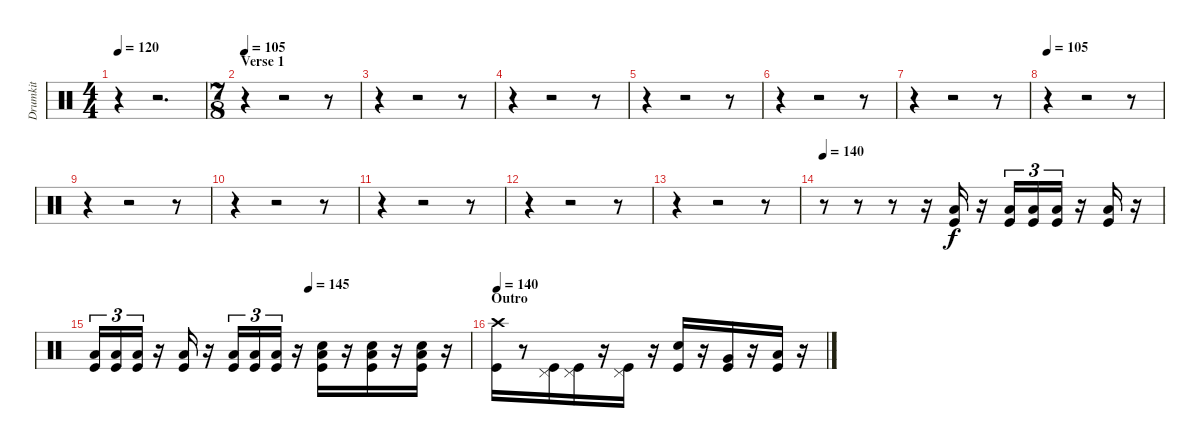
\track ("Drumkit" "Drumkit") {instrument percussion}
\staff {score}
\articulation defaults
\ts (4 4)
\tempo 120
\clef neutral
\ks c
r.4{dy f} r.2{d} |
\ts (7 8)
\section ("" "Verse 1")
\tempo 105
r.4 r.2 r.8 |
r.4 r.2 r.8 |
r.4 r.2 r.8 |
r.4 r.2 r.8 |
r.4 r.2 r.8 |
r.4 r.2 r.8 |
\tempo 105
r.4 r.2 r.8 |
r.4 r.2 r.8 |
r.4 r.2 r.8 |
r.4 r.2 r.8 |
r.4 r.2 r.8 |
r.4 r.2 r.8 |
\tempo 140
r.8 r.8 r.8 r.16 ("Low Tom (hit)" "Kick (hit)").16 r.16 ("Low Tom (hit)" "Kick (hit)").16{tu (3 2)} ("Low Tom (hit)" "Kick (hit)").16{tu (3 2)} ("Low Tom (hit)" "Kick (hit)").16{tu (3 2)} r.16 ("Low Tom (hit)" "Kick (hit)").16 r.16 |
\tempo (145 0.5714285714285714)
("Low Tom (hit)" "Kick (hit)").16{tu (3 2)} ("Low Tom (hit)" "Kick (hit)").16{tu (3 2)} ("Low Tom (hit)" "Kick (hit)").16{tu (3 2)} r.16 ("Low Tom (hit)" "Kick (hit)").16 r.16 ("Low Tom (hit)" "Kick (hit)").16{tu (3 2)} ("Low Tom (hit)" "Kick (hit)").16{tu (3 2)} ("Low Tom (hit)" "Kick (hit)").16{tu (3 2)} r.16 ("Low Tom (hit)" "Snare (hit) 2" "Kick (hit)").16 r.16 ("Low Tom (hit)" "Snare (hit) 2" "Kick (hit)").16 r.16 ("Low Tom (hit)" "Snare (hit) 2" "Kick (hit)").16 r.16 |
\section ("" "Outro")
\tempo 140
("Crash high (hit)" "Kick (hit)").16 r.8 ("Pedal Hi-Hat (hit)" "Kick (hit)").16 ("Pedal Hi-Hat (hit)" "Kick (hit)").16 r.16 ("Pedal Hi-Hat (hit)" "Kick (hit)").16 r.16 ("Snare (hit) 2" "Kick (hit)").16 r.16 ("Very Low Tom (hit)" "Kick (hit)").16 r.16 ("Low Tom (hit)" "Kick (hit)").16 r.16
